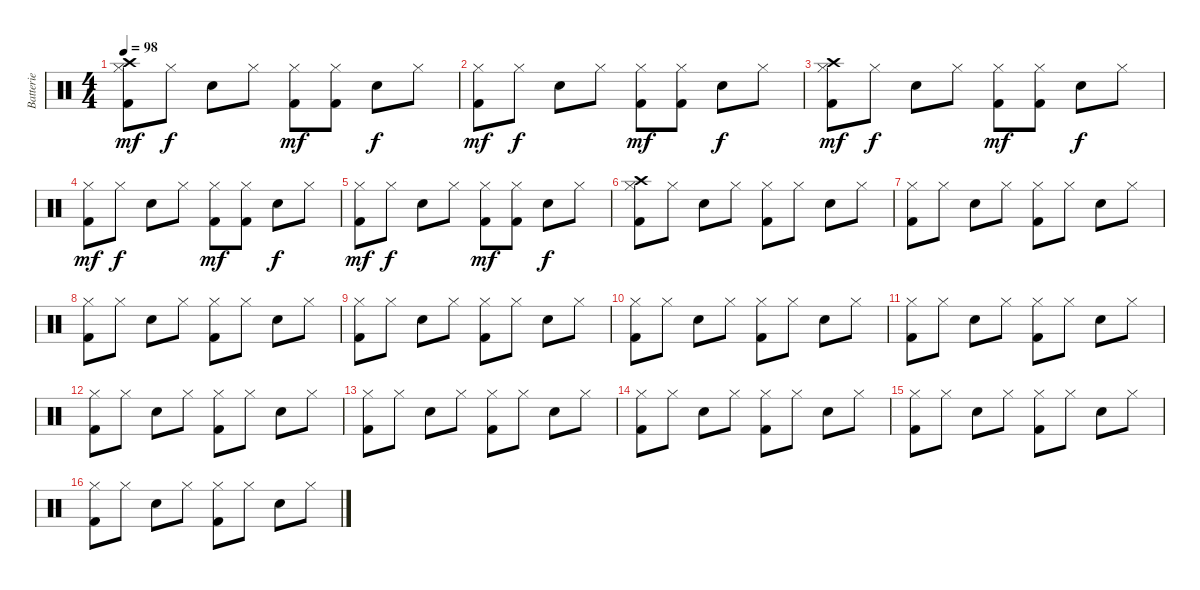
\track ("Batterie" "Batterie") {instrument percussion}
\staff {score}
\articulation defaults
\ts (4 4)
\tempo 98
\clef neutral
\ks c
("Kick (hit) 2" "Hi-Hat (closed)" "Crash high (hit)").8{dy mf} "Hi-Hat (closed)".8{dy f} "Snare (hit) 2".8 "Hi-Hat (closed)".8 ("Kick (hit) 2" "Hi-Hat (closed)").8{dy mf} ("Kick (hit) 2" "Hi-Hat (closed)").8 "Snare (hit) 2".8{dy f} "Hi-Hat (closed)".8 |
("Kick (hit) 2" "Hi-Hat (closed)").8{dy mf} "Hi-Hat (closed)".8{dy f} "Snare (hit) 2".8 "Hi-Hat (closed)".8 ("Kick (hit) 2" "Hi-Hat (closed)").8{dy mf} ("Kick (hit) 2" "Hi-Hat (closed)").8 "Snare (hit) 2".8{dy f} "Hi-Hat (closed)".8 |
("Kick (hit) 2" "Crash high (hit)" "Hi-Hat (closed)").8{dy mf} "Hi-Hat (closed)".8{dy f} "Snare (hit) 2".8 "Hi-Hat (closed)".8 ("Kick (hit) 2" "Hi-Hat (closed)").8{dy mf} ("Kick (hit) 2" "Hi-Hat (closed)").8 "Snare (hit) 2".8{dy f} "Hi-Hat (closed)".8 |
("Kick (hit) 2" "Hi-Hat (closed)").8{dy mf} "Hi-Hat (closed)".8{dy f} "Snare (hit) 2".8 "Hi-Hat (closed)".8 ("Kick (hit) 2" "Hi-Hat (closed)").8{dy mf} ("Kick (hit) 2" "Hi-Hat (closed)").8 "Snare (hit) 2".8{dy f} "Hi-Hat (closed)".8 |
("Kick (hit) 2" "Hi-Hat (closed)").8{dy mf} "Hi-Hat (closed)".8{dy f} "Snare (hit) 2".8 "Hi-Hat (closed)".8 ("Kick (hit) 2" "Hi-Hat (closed)").8{dy mf} ("Kick (hit) 2" "Hi-Hat (closed)").8 "Snare (hit) 2".8{dy f} "Hi-Hat (closed)".8 |
("Kick (hit) 2" "Crash high (hit)" "Hi-Hat (closed)").8 "Hi-Hat (closed)".8 "Electric Snare (hit)".8 "Hi-Hat (closed)".8 ("Kick (hit) 2" "Hi-Hat (closed)").8 "Hi-Hat (closed)".8 "Electric Snare (hit)".8 "Hi-Hat (closed)".8 |
("Kick (hit) 2" "Hi-Hat (closed)").8 "Hi-Hat (closed)".8 "Electric Snare (hit)".8 "Hi-Hat (closed)".8 ("Kick (hit) 2" "Hi-Hat (closed)").8 "Hi-Hat (closed)".8 "Electric Snare (hit)".8 "Hi-Hat (closed)".8 |
("Kick (hit) 2" "Hi-Hat (closed)").8 "Hi-Hat (closed)".8 "Electric Snare (hit)".8 "Hi-Hat (closed)".8 ("Kick (hit) 2" "Hi-Hat (closed)").8 "Hi-Hat (closed)".8 "Electric Snare (hit)".8 "Hi-Hat (closed)".8 |
("Kick (hit) 2" "Hi-Hat (closed)").8 "Hi-Hat (closed)".8 "Electric Snare (hit)".8 "Hi-Hat (closed)".8 ("Kick (hit) 2" "Hi-Hat (closed)").8 "Hi-Hat (closed)".8 "Electric Snare (hit)".8 "Hi-Hat (closed)".8 |
("Kick (hit) 2" "Hi-Hat (closed)").8 "Hi-Hat (closed)".8 "Electric Snare (hit)".8 "Hi-Hat (closed)".8 ("Kick (hit) 2" "Hi-Hat (closed)").8 "Hi-Hat (closed)".8 "Electric Snare (hit)".8 "Hi-Hat (closed)".8 |
("Kick (hit) 2" "Hi-Hat (closed)").8 "Hi-Hat (closed)".8 "Electric Snare (hit)".8 "Hi-Hat (closed)".8 ("Kick (hit) 2" "Hi-Hat (closed)").8 "Hi-Hat (closed)".8 "Electric Snare (hit)".8 "Hi-Hat (closed)".8 |
("Kick (hit) 2" "Hi-Hat (closed)").8 "Hi-Hat (closed)".8 "Electric Snare (hit)".8 "Hi-Hat (closed)".8 ("Kick (hit) 2" "Hi-Hat (closed)").8 "Hi-Hat (closed)".8 "Electric Snare (hit)".8 "Hi-Hat (closed)".8 |
("Kick (hit) 2" "Hi-Hat (closed)").8 "Hi-Hat (closed)".8 "Electric Snare (hit)".8 "Hi-Hat (closed)".8 ("Kick (hit) 2" "Hi-Hat (closed)").8 "Hi-Hat (closed)".8 "Electric Snare (hit)".8 "Hi-Hat (closed)".8 |
("Kick (hit) 2" "Hi-Hat (closed)").8 "Hi-Hat (closed)".8 "Electric Snare (hit)".8 "Hi-Hat (closed)".8 ("Kick (hit) 2" "Hi-Hat (closed)").8 "Hi-Hat (closed)".8 "Electric Snare (hit)".8 "Hi-Hat (closed)".8 |
("Kick (hit) 2" "Hi-Hat (closed)").8 "Hi-Hat (closed)".8 "Electric Snare (hit)".8 "Hi-Hat (closed)".8 ("Kick (hit) 2" "Hi-Hat (closed)").8 "Hi-Hat (closed)".8 "Electric Snare (hit)".8 "Hi-Hat (closed)".8 |
("Kick (hit) 2" "Hi-Hat (closed)").8 "Hi-Hat (closed)".8 "Electric Snare (hit)".8 "Hi-Hat (closed)".8 ("Kick (hit) 2" "Hi-Hat (closed)").8 "Hi-Hat (closed)".8 "Electric Snare (hit)".8 "Hi-Hat (closed)".8
